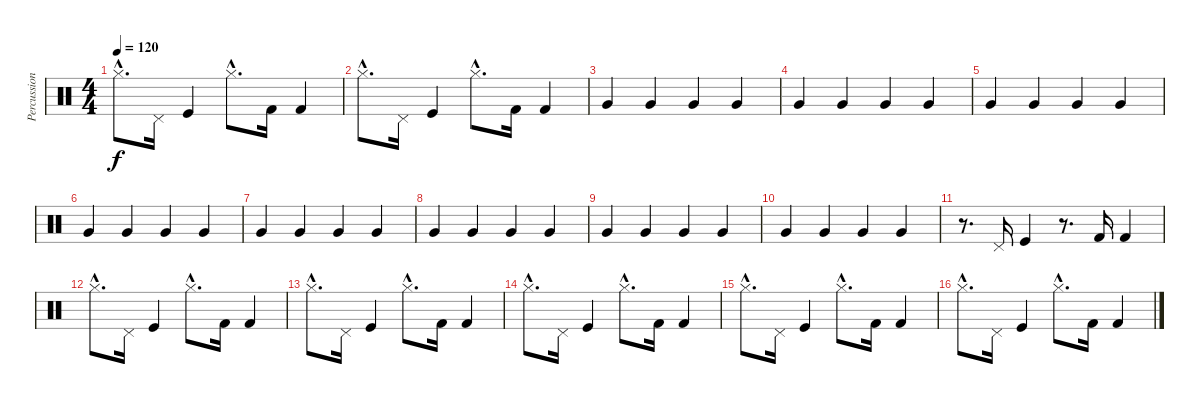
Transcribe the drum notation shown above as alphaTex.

\track ("Percussions" "Percussion") {instrument percussion}
\staff {score}
\articulation defaults
\ts (4 4)
\tempo 120
\clef neutral
\ks c "Hi-Hat (closed)"{hac}.8{d dy f} "Pedal Hi-Hat (hit)".16 "Kick (hit)".4 "Hi-Hat (closed)"{hac}.8{d} "Kick (hit) 2".16 "Kick (hit) 2".4
|
"Hi-Hat (closed)"{hac}.8{d} "Pedal Hi-Hat (hit)".16 "Kick (hit)".4 "Hi-Hat (closed)"{hac}.8{d} "Kick (hit) 2".16 "Kick (hit) 2".4 |
"Very Low Tom (hit)".4 "Very Low Tom (hit)".4 "Very Low Tom (hit)".4 "Very Low Tom (hit)".4 |
"Very Low Tom (hit)".4 "Very Low Tom (hit)".4 "Very Low Tom (hit)".4 "Very Low Tom (hit)".4 |
"Very Low Tom (hit)".4 "Very Low Tom (hit)".4 "Very Low Tom (hit)".4 "Very Low Tom (hit)".4 |
"Very Low Tom (hit)".4 "Very Low Tom (hit)".4 "Very Low Tom (hit)".4 "Very Low Tom (hit)".4 |
"Very Low Tom (hit)".4 "Very Low Tom (hit)".4 "Very Low Tom (hit)".4 "Very Low Tom (hit)".4 |
"Very Low Tom (hit)".4 "Very Low Tom (hit)".4 "Very Low Tom (hit)".4 "Very Low Tom (hit)".4 |
"Very Low Tom (hit)".4 "Very Low Tom (hit)".4 "Very Low Tom (hit)".4 "Very Low Tom (hit)".4 |
"Very Low Tom (hit)".4 "Very Low Tom (hit)".4 "Very Low Tom (hit)".4 "Very Low Tom (hit)".4 |
r.8{d} "Pedal Hi-Hat (hit)".16 "Kick (hit)".4 r.8{d} "Kick (hit) 2".16 "Kick (hit) 2".4 |
"Hi-Hat (closed)"{hac}.8{d} "Pedal Hi-Hat (hit)".16 "Kick (hit)".4 "Hi-Hat (closed)"{hac}.8{d} "Kick (hit) 2".16 "Kick (hit) 2".4 |
"Hi-Hat (closed)"{hac}.8{d} "Pedal Hi-Hat (hit)".16 "Kick (hit)".4 "Hi-Hat (closed)"{hac}.8{d} "Kick (hit) 2".16 "Kick (hit) 2".4 |
"Hi-Hat (closed)"{hac}.8{d} "Pedal Hi-Hat (hit)".16 "Kick (hit)".4 "Hi-Hat (closed)"{hac}.8{d} "Kick (hit) 2".16 "Kick (hit) 2".4 |
"Hi-Hat (closed)"{hac}.8{d} "Pedal Hi-Hat (hit)".16 "Kick (hit)".4 "Hi-Hat (closed)"{hac}.8{d} "Kick (hit) 2".16 "Kick (hit) 2".4 |
"Hi-Hat (closed)"{hac}.8{d} "Pedal Hi-Hat (hit)".16 "Kick (hit)".4 "Hi-Hat (closed)"{hac}.8{d} "Kick (hit) 2".16 "Kick (hit) 2".4
